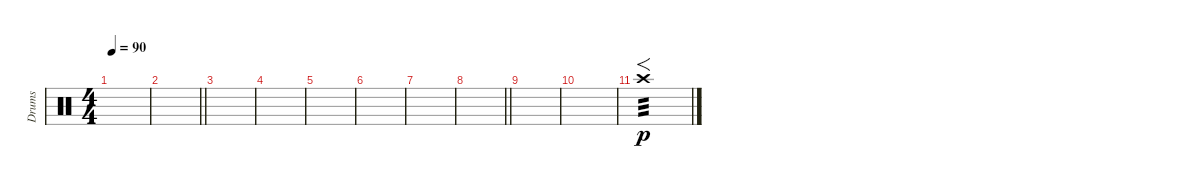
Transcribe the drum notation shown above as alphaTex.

\track ("Drums" "Drums") {instrument percussion}
\staff {score}
\articulation defaults
\ts (4 4)
\tempo 90
\clef neutral
\ks c
|
\barLineRight lightlight
|
|
|
|
|
|
\barLineRight lightlight
|
|
|
"Crash high (hit)".1{f tp 3 dy p}
